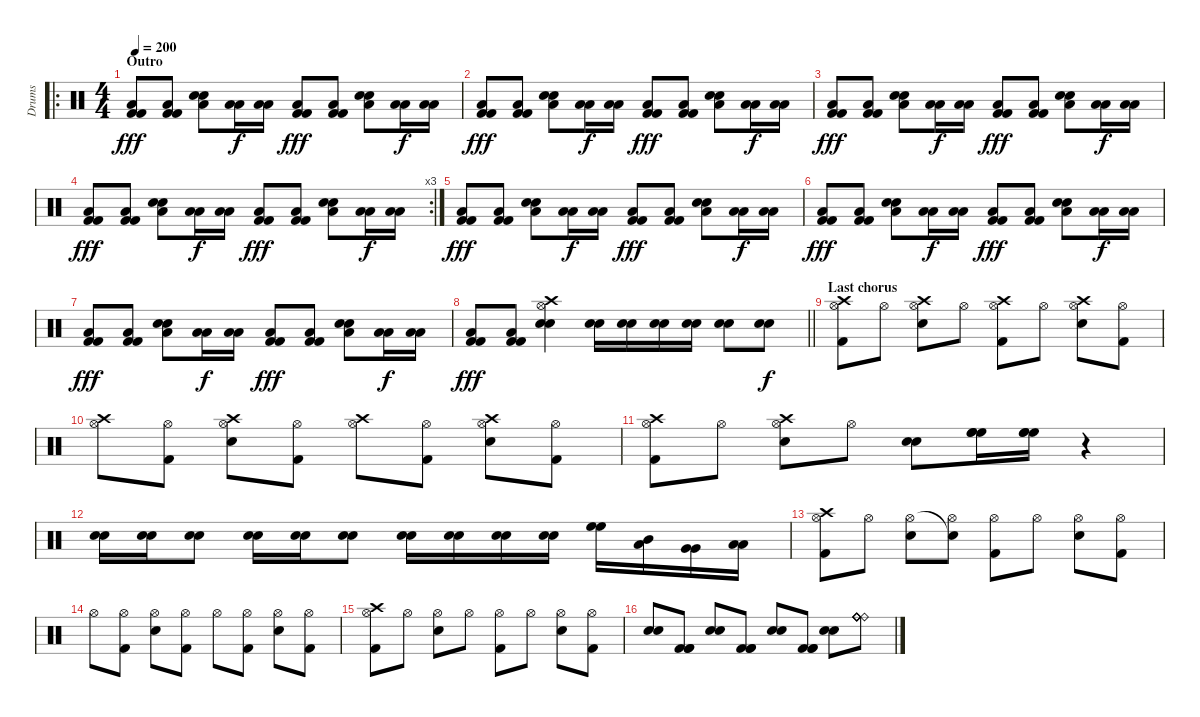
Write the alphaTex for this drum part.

\track ("Drums" "Drums") {instrument percussion}
\staff {score}
\articulation defaults
\ro
\ts (4 4)
\section ("" "Outro")
\tempo 200
\clef neutral
\ks c
("Kick (hit) 2" "Kick (hit) 2" "Low Floor Tom (hit)").8{dy fff} ("Kick (hit) 2" "Kick (hit) 2" "Low Floor Tom (hit)").8 ("Electric Snare (hit)" "Electric Snare (hit)" "Low Floor Tom (hit)").8 ("Low Floor Tom (hit)" "Low Floor Tom (hit)").16{dy f} ("Low Floor Tom (hit)" "Low Floor Tom (hit)").16 ("Kick (hit) 2" "Kick (hit) 2" "Low Floor Tom (hit)").8{dy fff} ("Kick (hit) 2" "Kick (hit) 2" "Low Floor Tom (hit)").8 ("Electric Snare (hit)" "Electric Snare (hit)" "Low Floor Tom (hit)").8 ("Low Floor Tom (hit)" "Low Floor Tom (hit)").16{dy f} ("Low Floor Tom (hit)" "Low Floor Tom (hit)").16 |
("Kick (hit) 2" "Kick (hit) 2" "Low Floor Tom (hit)").8{dy fff} ("Kick (hit) 2" "Kick (hit) 2" "Low Floor Tom (hit)").8 ("Electric Snare (hit)" "Electric Snare (hit)" "Low Floor Tom (hit)").8 ("Low Floor Tom (hit)" "Low Floor Tom (hit)").16{dy f} ("Low Floor Tom (hit)" "Low Floor Tom (hit)").16 ("Kick (hit) 2" "Kick (hit) 2" "Low Floor Tom (hit)").8{dy fff} ("Kick (hit) 2" "Kick (hit) 2" "Low Floor Tom (hit)").8 ("Electric Snare (hit)" "Electric Snare (hit)" "Low Floor Tom (hit)").8 ("Low Floor Tom (hit)" "Low Floor Tom (hit)").16{dy f} ("Low Floor Tom (hit)" "Low Floor Tom (hit)").16 |
("Kick (hit) 2" "Kick (hit) 2" "Low Floor Tom (hit)").8{dy fff} ("Kick (hit) 2" "Kick (hit) 2" "Low Floor Tom (hit)").8 ("Electric Snare (hit)" "Electric Snare (hit)" "Low Floor Tom (hit)").8 ("Low Floor Tom (hit)" "Low Floor Tom (hit)").16{dy f} ("Low Floor Tom (hit)" "Low Floor Tom (hit)").16 ("Kick (hit) 2" "Kick (hit) 2" "Low Floor Tom (hit)").8{dy fff} ("Kick (hit) 2" "Kick (hit) 2" "Low Floor Tom (hit)").8 ("Electric Snare (hit)" "Electric Snare (hit)" "Low Floor Tom (hit)").8 ("Low Floor Tom (hit)" "Low Floor Tom (hit)").16{dy f} ("Low Floor Tom (hit)" "Low Floor Tom (hit)").16 |
\rc 3
("Kick (hit) 2" "Kick (hit) 2" "Low Floor Tom (hit)").8{dy fff} ("Kick (hit) 2" "Kick (hit) 2" "Low Floor Tom (hit)").8 ("Electric Snare (hit)" "Electric Snare (hit)" "Low Floor Tom (hit)").8 ("Low Floor Tom (hit)" "Low Floor Tom (hit)").16{dy f} ("Low Floor Tom (hit)" "Low Floor Tom (hit)").16 ("Kick (hit) 2" "Kick (hit) 2" "Low Floor Tom (hit)").8{dy fff} ("Kick (hit) 2" "Kick (hit) 2" "Low Floor Tom (hit)").8 ("Electric Snare (hit)" "Electric Snare (hit)" "Low Floor Tom (hit)").8 ("Low Floor Tom (hit)" "Low Floor Tom (hit)").16{dy f} ("Low Floor Tom (hit)" "Low Floor Tom (hit)").16 |
("Kick (hit) 2" "Kick (hit) 2" "Low Floor Tom (hit)").8{dy fff} ("Kick (hit) 2" "Kick (hit) 2" "Low Floor Tom (hit)").8 ("Electric Snare (hit)" "Electric Snare (hit)" "Low Floor Tom (hit)").8 ("Low Floor Tom (hit)" "Low Floor Tom (hit)").16{dy f} ("Low Floor Tom (hit)" "Low Floor Tom (hit)").16 ("Kick (hit) 2" "Kick (hit) 2" "Low Floor Tom (hit)").8{dy fff} ("Kick (hit) 2" "Kick (hit) 2" "Low Floor Tom (hit)").8 ("Electric Snare (hit)" "Electric Snare (hit)" "Low Floor Tom (hit)").8 ("Low Floor Tom (hit)" "Low Floor Tom (hit)").16{dy f} ("Low Floor Tom (hit)" "Low Floor Tom (hit)").16 |
("Kick (hit) 2" "Kick (hit) 2" "Low Floor Tom (hit)").8{dy fff} ("Kick (hit) 2" "Kick (hit) 2" "Low Floor Tom (hit)").8 ("Electric Snare (hit)" "Electric Snare (hit)" "Low Floor Tom (hit)").8 ("Low Floor Tom (hit)" "Low Floor Tom (hit)").16{dy f} ("Low Floor Tom (hit)" "Low Floor Tom (hit)").16 ("Kick (hit) 2" "Kick (hit) 2" "Low Floor Tom (hit)").8{dy fff} ("Kick (hit) 2" "Kick (hit) 2" "Low Floor Tom (hit)").8 ("Electric Snare (hit)" "Electric Snare (hit)" "Low Floor Tom (hit)").8 ("Low Floor Tom (hit)" "Low Floor Tom (hit)").16{dy f} ("Low Floor Tom (hit)" "Low Floor Tom (hit)").16 |
("Kick (hit) 2" "Kick (hit) 2" "Low Floor Tom (hit)").8{dy fff} ("Kick (hit) 2" "Kick (hit) 2" "Low Floor Tom (hit)").8 ("Electric Snare (hit)" "Electric Snare (hit)" "Low Floor Tom (hit)").8 ("Low Floor Tom (hit)" "Low Floor Tom (hit)").16{dy f} ("Low Floor Tom (hit)" "Low Floor Tom (hit)").16 ("Kick (hit) 2" "Kick (hit) 2" "Low Floor Tom (hit)").8{dy fff} ("Kick (hit) 2" "Kick (hit) 2" "Low Floor Tom (hit)").8 ("Electric Snare (hit)" "Electric Snare (hit)" "Low Floor Tom (hit)").8 ("Low Floor Tom (hit)" "Low Floor Tom (hit)").16{dy f} ("Low Floor Tom (hit)" "Low Floor Tom (hit)").16 |
\barLineRight lightlight
("Kick (hit) 2" "Kick (hit) 2" "Low Floor Tom (hit)").8{dy fff} ("Kick (hit) 2" "Kick (hit) 2" "Low Floor Tom (hit)").8 ("Electric Snare (hit)" "Electric Snare (hit)" "Crash high (hit)" "Hi-Hat (open)").4 ("Snare (hit) 2" "Electric Snare (hit)").16 ("Snare (hit) 2" "Electric Snare (hit)").16 ("Snare (hit) 2" "Electric Snare (hit)").16 ("Snare (hit) 2" "Electric Snare (hit)").16 ("Snare (hit) 2" "Electric Snare (hit)").8 ("Snare (hit) 2" "Electric Snare (hit)").8{dy f} |
\section ("" "Last chorus")
("Crash high (hit)" "Hi-Hat (open)" "Kick (hit) 2").8 "Hi-Hat (open)".8 ("Crash high (hit)" "Hi-Hat (open)" "Electric Snare (hit)").8 "Hi-Hat (open)".8 ("Crash high (hit)" "Hi-Hat (open)" "Kick (hit) 2").8 "Hi-Hat (open)".8 ("Crash high (hit)" "Hi-Hat (open)" "Electric Snare (hit)").8 ("Hi-Hat (open)" "Kick (hit) 2").8 |
("Crash high (hit)" "Hi-Hat (open)").8 ("Hi-Hat (open)" "Kick (hit) 2").8 ("Crash high (hit)" "Hi-Hat (open)" "Electric Snare (hit)").8 ("Hi-Hat (open)" "Kick (hit) 2").8 ("Crash high (hit)" "Hi-Hat (open)").8 ("Hi-Hat (open)" "Kick (hit) 2").8 ("Crash high (hit)" "Hi-Hat (open)" "Electric Snare (hit)").8 ("Hi-Hat (open)" "Kick (hit) 2").8 |
("Crash high (hit)" "Hi-Hat (open)" "Kick (hit) 2").8 "Hi-Hat (open)".8 ("Crash high (hit)" "Hi-Hat (open)" "Electric Snare (hit)").8 "Hi-Hat (open)".8 ("Snare (hit) 2" "Electric Snare (hit)").8 ("High Floor Tom (hit)" "High Floor Tom (hit)" "High Floor Tom (hit)").16 ("High Floor Tom (hit)" "High Floor Tom (hit)" "High Floor Tom (hit)").16 r.4 |
("Snare (hit) 2" "Electric Snare (hit)").16 ("Snare (hit) 2" "Electric Snare (hit)").16 ("Snare (hit) 2" "Electric Snare (hit)").8 ("Snare (hit) 2" "Electric Snare (hit)").16 ("Snare (hit) 2" "Electric Snare (hit)").16 ("Snare (hit) 2" "Electric Snare (hit)").8 ("Snare (hit) 2" "Electric Snare (hit)").16 ("Snare (hit) 2" "Electric Snare (hit)").16 ("Snare (hit) 2" "Electric Snare (hit)").16 ("Snare (hit) 2" "Electric Snare (hit)").16 ("High Floor Tom (hit)" "High Floor Tom (hit)").16 ("Low Tom (hit)" "Mid Tom (hit)").16 ("Very Low Tom (hit)" "Very Low Tom (hit)").16 ("Low Floor Tom (hit)" "Low Floor Tom (hit)").16 |
("Crash high (hit)" "Hi-Hat (open)" "Kick (hit) 2").8 "Hi-Hat (open)".8 ("Hi-Hat (open)" "Electric Snare (hit)").8 ("Snare (hit)"{t} "Hi-Hat (open)").8 ("Hi-Hat (open)" "Kick (hit) 2").8 "Hi-Hat (open)".8 ("Hi-Hat (open)" "Electric Snare (hit)").8 ("Hi-Hat (open)" "Kick (hit) 2").8 |
"Hi-Hat (open)".8 ("Hi-Hat (open)" "Kick (hit) 2").8 ("Hi-Hat (open)" "Electric Snare (hit)").8 ("Hi-Hat (open)" "Kick (hit) 2").8 "Hi-Hat (open)".8 ("Hi-Hat (open)" "Kick (hit) 2").8 ("Hi-Hat (open)" "Electric Snare (hit)").8 ("Hi-Hat (open)" "Kick (hit) 2").8 |
("Crash high (hit)" "Hi-Hat (open)" "Kick (hit) 2").8 "Hi-Hat (open)".8 ("Hi-Hat (open)" "Electric Snare (hit)").8 "Hi-Hat (open)".8 ("Hi-Hat (open)" "Kick (hit) 2").8 "Hi-Hat (open)".8 ("Hi-Hat (open)" "Electric Snare (hit)").8 ("Hi-Hat (open)" "Kick (hit) 2").8 |
("Snare (hit) 2" "Electric Snare (hit)").8 ("Kick (hit) 2" "Kick (hit) 2" "Kick (hit) 2").8 ("Snare (hit) 2" "Electric Snare (hit)").8 ("Kick (hit) 2" "Kick (hit) 2" "Kick (hit) 2").8 ("Snare (hit) 2" "Electric Snare (hit)").8 ("Kick (hit) 2" "Kick (hit) 2" "Kick (hit) 2").8 ("Snare (hit) 2" "Electric Snare (hit)").8 ("Ride (bell)" "Ride (bell)" "Ride (bell)" "Ride (bell)" "Ride (bell)" "Ride (bell)").8
